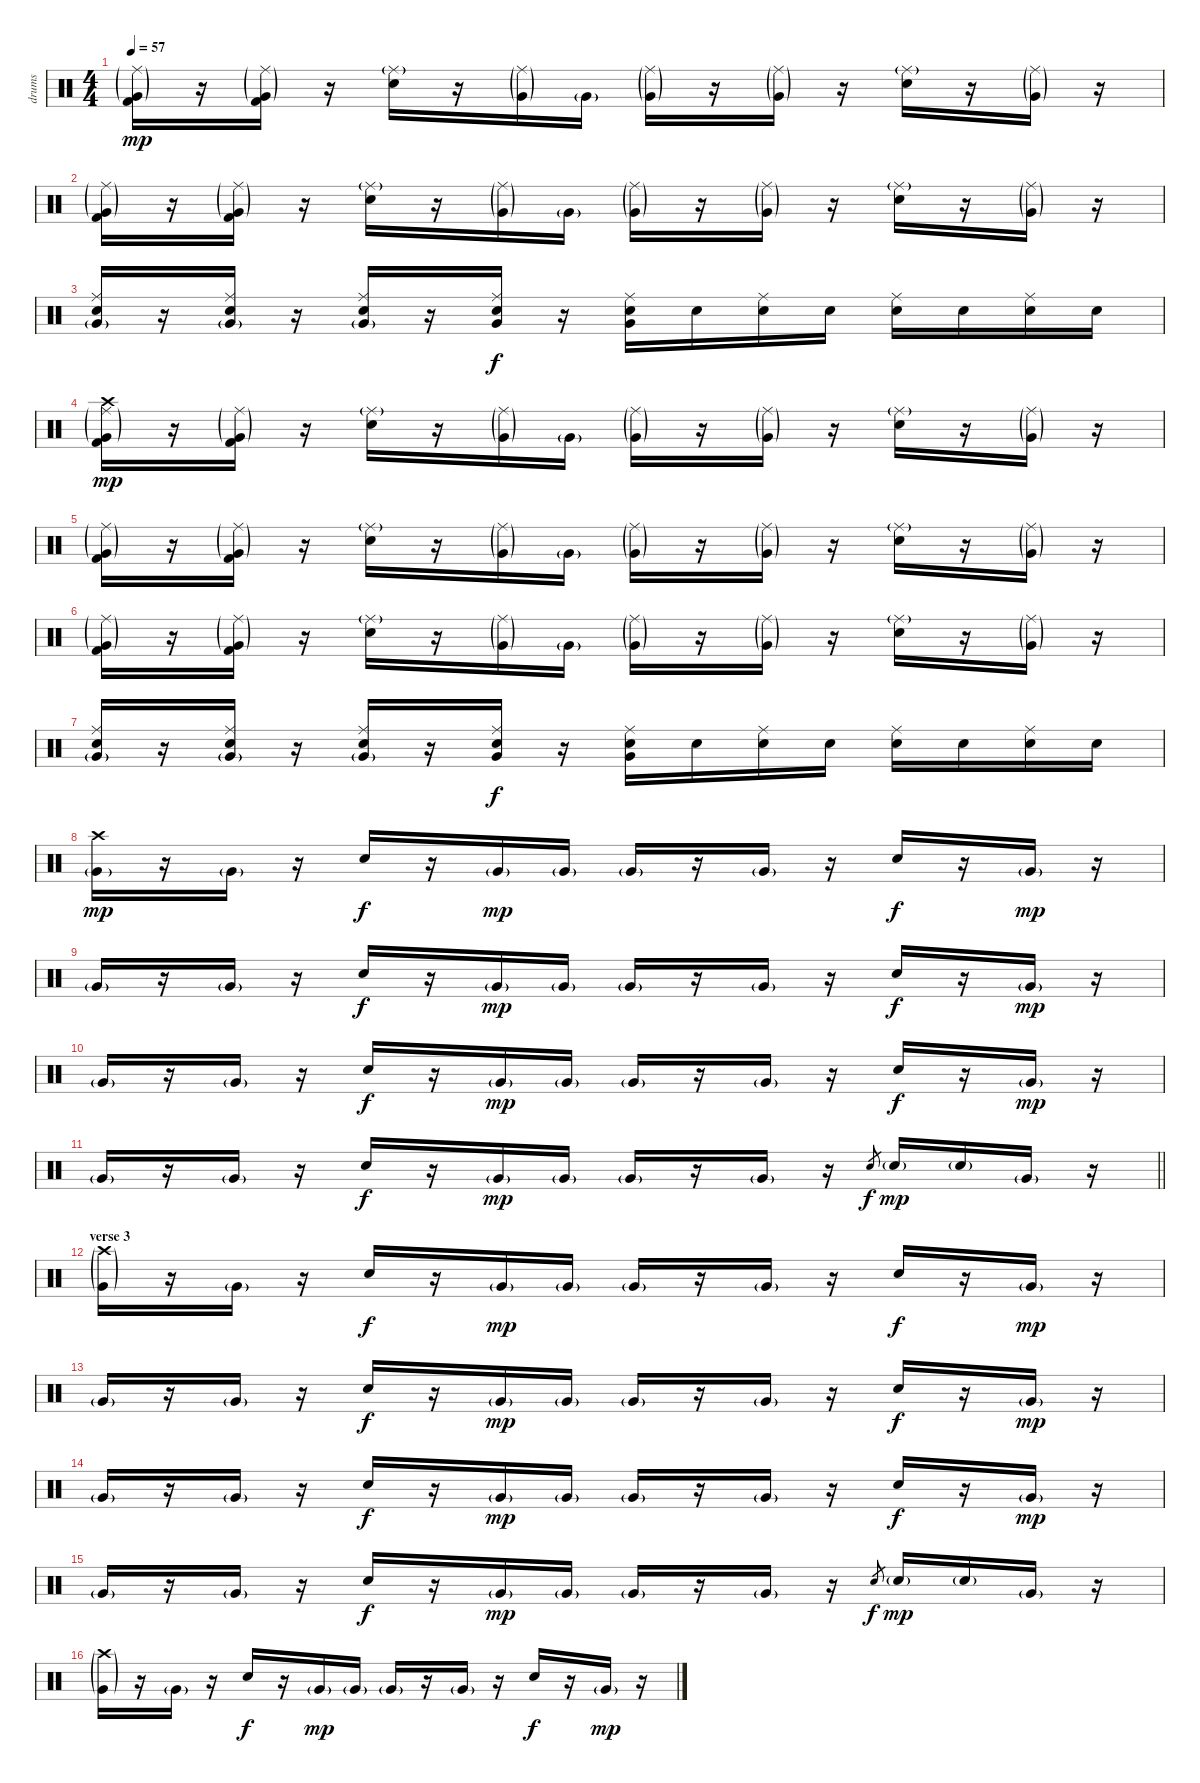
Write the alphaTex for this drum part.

\track ("drums" "drums") {instrument percussion}
\staff {score}
\articulation defaults
\ts (4 4)
\tempo 57
\clef neutral
\ks c
("Kick (hit) 2" "Very Low Tom (hit)"{g} "Ride (middle)"{g}).16{dy mp} r.16 ("Kick (hit) 2" "Very Low Tom (hit)"{g} "Ride (middle)"{g}).16 r.16 ("Electric Snare (hit)" "Ride (middle)"{g}).16 r.16 ("Very Low Tom (hit)"{g} "Ride (middle)"{g}).16 "Very Low Tom (hit)"{g}.16 ("Very Low Tom (hit)"{g} "Ride (middle)"{g}).16 r.16 ("Very Low Tom (hit)"{g} "Ride (middle)"{g}).16 r.16 ("Electric Snare (hit)" "Ride (middle)"{g}).16 r.16 ("Very Low Tom (hit)"{g} "Ride (middle)"{g}).16 r.16 |
("Kick (hit) 2" "Very Low Tom (hit)"{g} "Ride (middle)"{g}).16 r.16 ("Kick (hit) 2" "Very Low Tom (hit)"{g} "Ride (middle)"{g}).16 r.16 ("Electric Snare (hit)" "Ride (middle)"{g}).16 r.16 ("Very Low Tom (hit)"{g} "Ride (middle)"{g}).16 "Very Low Tom (hit)"{g}.16 ("Very Low Tom (hit)"{g} "Ride (middle)"{g}).16 r.16 ("Very Low Tom (hit)"{g} "Ride (middle)"{g}).16 r.16 ("Electric Snare (hit)" "Ride (middle)"{g}).16 r.16 ("Very Low Tom (hit)"{g} "Ride (middle)"{g}).16 r.16 |
("Electric Snare (hit)" "Very Low Tom (hit)"{g} "Ride (middle)").16 r.16 ("Electric Snare (hit)" "Very Low Tom (hit)"{g} "Ride (middle)").16 r.16 ("Electric Snare (hit)" "Very Low Tom (hit)"{g} "Ride (middle)").16 r.16 ("Electric Snare (hit)" "Very Low Tom (hit)" "Ride (middle)").16{dy f} r.16 ("Electric Snare (hit)" "Very Low Tom (hit)" "Ride (middle)").16 "Electric Snare (hit)".16 ("Electric Snare (hit)" "Ride (middle)").16 "Electric Snare (hit)".16 ("Electric Snare (hit)" "Ride (middle)").16 "Electric Snare (hit)".16 ("Electric Snare (hit)" "Ride (middle)").16 "Electric Snare (hit)".16 |
("Kick (hit) 2" "Very Low Tom (hit)"{g} "Ride (middle)"{g} "Crash high (hit)").16{dy mp} r.16 ("Kick (hit) 2" "Very Low Tom (hit)"{g} "Ride (middle)"{g}).16 r.16 ("Electric Snare (hit)" "Ride (middle)"{g}).16 r.16 ("Very Low Tom (hit)"{g} "Ride (middle)"{g}).16 "Very Low Tom (hit)"{g}.16 ("Very Low Tom (hit)"{g} "Ride (middle)"{g}).16 r.16 ("Very Low Tom (hit)"{g} "Ride (middle)"{g}).16 r.16 ("Electric Snare (hit)" "Ride (middle)"{g}).16 r.16 ("Very Low Tom (hit)"{g} "Ride (middle)"{g}).16 r.16 |
("Kick (hit) 2" "Very Low Tom (hit)"{g} "Ride (middle)"{g}).16 r.16 ("Kick (hit) 2" "Very Low Tom (hit)"{g} "Ride (middle)"{g}).16 r.16 ("Electric Snare (hit)" "Ride (middle)"{g}).16 r.16 ("Very Low Tom (hit)"{g} "Ride (middle)"{g}).16 "Very Low Tom (hit)"{g}.16 ("Very Low Tom (hit)"{g} "Ride (middle)"{g}).16 r.16 ("Very Low Tom (hit)"{g} "Ride (middle)"{g}).16 r.16 ("Electric Snare (hit)" "Ride (middle)"{g}).16 r.16 ("Very Low Tom (hit)"{g} "Ride (middle)"{g}).16 r.16 |
("Kick (hit) 2" "Very Low Tom (hit)"{g} "Ride (middle)"{g}).16 r.16 ("Kick (hit) 2" "Very Low Tom (hit)"{g} "Ride (middle)"{g}).16 r.16 ("Electric Snare (hit)" "Ride (middle)"{g}).16 r.16 ("Very Low Tom (hit)"{g} "Ride (middle)"{g}).16 "Very Low Tom (hit)"{g}.16 ("Very Low Tom (hit)"{g} "Ride (middle)"{g}).16 r.16 ("Very Low Tom (hit)"{g} "Ride (middle)"{g}).16 r.16 ("Electric Snare (hit)" "Ride (middle)"{g}).16 r.16 ("Very Low Tom (hit)"{g} "Ride (middle)"{g}).16 r.16 |
("Electric Snare (hit)" "Very Low Tom (hit)"{g} "Ride (middle)").16 r.16 ("Electric Snare (hit)" "Very Low Tom (hit)"{g} "Ride (middle)").16 r.16 ("Electric Snare (hit)" "Very Low Tom (hit)"{g} "Ride (middle)").16 r.16 ("Electric Snare (hit)" "Very Low Tom (hit)" "Ride (middle)").16{dy f} r.16 ("Electric Snare (hit)" "Very Low Tom (hit)" "Ride (middle)").16 "Electric Snare (hit)".16 ("Electric Snare (hit)" "Ride (middle)").16 "Electric Snare (hit)".16 ("Electric Snare (hit)" "Ride (middle)").16 "Electric Snare (hit)".16 ("Electric Snare (hit)" "Ride (middle)").16 "Electric Snare (hit)".16 |
("Very Low Tom (hit)"{g} "Crash high (hit)").16{dy mp} r.16 "Very Low Tom (hit)"{g}.16 r.16 "Electric Snare (hit)".16{dy f} r.16 "Very Low Tom (hit)"{g}.16{dy mp} "Very Low Tom (hit)"{g}.16 "Very Low Tom (hit)"{g}.16 r.16 "Very Low Tom (hit)"{g}.16 r.16 "Electric Snare (hit)".16{dy f} r.16 "Very Low Tom (hit)"{g}.16{dy mp} r.16 |
"Very Low Tom (hit)"{g}.16 r.16 "Very Low Tom (hit)"{g}.16 r.16 "Electric Snare (hit)".16{dy f} r.16 "Very Low Tom (hit)"{g}.16{dy mp} "Very Low Tom (hit)"{g}.16 "Very Low Tom (hit)"{g}.16 r.16 "Very Low Tom (hit)"{g}.16 r.16 "Electric Snare (hit)".16{dy f} r.16 "Very Low Tom (hit)"{g}.16{dy mp} r.16 |
"Very Low Tom (hit)"{g}.16 r.16 "Very Low Tom (hit)"{g}.16 r.16 "Electric Snare (hit)".16{dy f} r.16 "Very Low Tom (hit)"{g}.16{dy mp} "Very Low Tom (hit)"{g}.16 "Very Low Tom (hit)"{g}.16 r.16 "Very Low Tom (hit)"{g}.16 r.16 "Electric Snare (hit)".16{dy f} r.16 "Very Low Tom (hit)"{g}.16{dy mp} r.16 |
\barLineRight lightlight "Very Low Tom (hit)"{g}.16
r.16 "Very Low Tom (hit)"{g}.16 r.16 "Electric Snare (hit)".16{dy f} r.16 "Very Low Tom (hit)"{g}.16{dy mp} "Very Low Tom (hit)"{g}.16 "Very Low Tom (hit)"{g}.16 r.16 "Very Low Tom (hit)"{g}.16 r.16 "Electric Snare (hit)".8{gr dy f} "Electric Snare (hit)"{g}.16{dy mp} "Electric Snare (hit)"{g}.16 "Very Low Tom (hit)"{g}.16 r.16 |
\section ("" "verse 3")
("Very Low Tom (hit)"{g} "Crash high (hit)"{g}).16 r.16 "Very Low Tom (hit)"{g}.16 r.16 "Electric Snare (hit)".16{dy f} r.16 "Very Low Tom (hit)"{g}.16{dy mp} "Very Low Tom (hit)"{g}.16 "Very Low Tom (hit)"{g}.16 r.16 "Very Low Tom (hit)"{g}.16 r.16 "Electric Snare (hit)".16{dy f} r.16 "Very Low Tom (hit)"{g}.16{dy mp} r.16 |
"Very Low Tom (hit)"{g}.16 r.16 "Very Low Tom (hit)"{g}.16 r.16 "Electric Snare (hit)".16{dy f} r.16 "Very Low Tom (hit)"{g}.16{dy mp} "Very Low Tom (hit)"{g}.16 "Very Low Tom (hit)"{g}.16 r.16 "Very Low Tom (hit)"{g}.16 r.16 "Electric Snare (hit)".16{dy f} r.16 "Very Low Tom (hit)"{g}.16{dy mp} r.16 |
"Very Low Tom (hit)"{g}.16 r.16 "Very Low Tom (hit)"{g}.16 r.16 "Electric Snare (hit)".16{dy f} r.16 "Very Low Tom (hit)"{g}.16{dy mp} "Very Low Tom (hit)"{g}.16 "Very Low Tom (hit)"{g}.16 r.16 "Very Low Tom (hit)"{g}.16 r.16 "Electric Snare (hit)".16{dy f} r.16 "Very Low Tom (hit)"{g}.16{dy mp} r.16 |
"Very Low Tom (hit)"{g}.16 r.16 "Very Low Tom (hit)"{g}.16 r.16 "Electric Snare (hit)".16{dy f} r.16 "Very Low Tom (hit)"{g}.16{dy mp} "Very Low Tom (hit)"{g}.16 "Very Low Tom (hit)"{g}.16 r.16 "Very Low Tom (hit)"{g}.16 r.16 "Electric Snare (hit)".8{gr dy f} "Electric Snare (hit)"{g}.16{dy mp} "Electric Snare (hit)"{g}.16 "Very Low Tom (hit)"{g}.16 r.16 |
("Very Low Tom (hit)"{g} "Crash high (hit)"{g}).16 r.16 "Very Low Tom (hit)"{g}.16 r.16 "Electric Snare (hit)".16{dy f} r.16 "Very Low Tom (hit)"{g}.16{dy mp} "Very Low Tom (hit)"{g}.16 "Very Low Tom (hit)"{g}.16 r.16 "Very Low Tom (hit)"{g}.16 r.16 "Electric Snare (hit)".16{dy f} r.16 "Very Low Tom (hit)"{g}.16{dy mp} r.16
